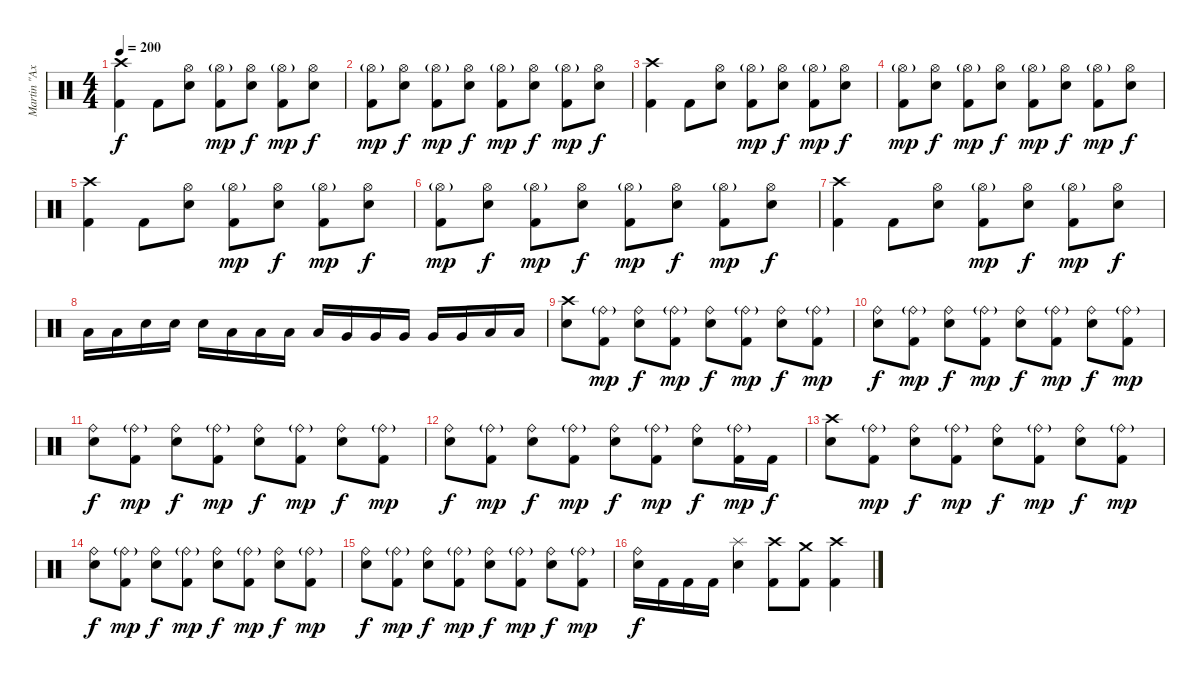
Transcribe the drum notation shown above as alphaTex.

\track ("Martin \"Axe\" Axenrot" "Martin \"Ax") {instrument percussion}
\staff {score}
\articulation defaults
\ts (4 4)
\tempo 200
\clef neutral
\ks c
("Crash high (hit)" "Kick (hit) 2").4{dy f} "Kick (hit) 2".8 ("Hi-Hat (open)" "Electric Snare (hit)").8 ("Hi-Hat (open)"{g} "Kick (hit) 2").8{dy mp} ("Hi-Hat (open)" "Electric Snare (hit)").8{dy f} ("Hi-Hat (open)"{g} "Kick (hit) 2").8{dy mp} ("Hi-Hat (open)" "Electric Snare (hit)").8{dy f} |
("Hi-Hat (open)"{g} "Kick (hit) 2").8{dy mp} ("Hi-Hat (open)" "Electric Snare (hit)").8{dy f} ("Hi-Hat (open)"{g} "Kick (hit) 2").8{dy mp} ("Hi-Hat (open)" "Electric Snare (hit)").8{dy f} ("Hi-Hat (open)"{g} "Kick (hit) 2").8{dy mp} ("Hi-Hat (open)" "Electric Snare (hit)").8{dy f} ("Hi-Hat (open)"{g} "Kick (hit) 2").8{dy mp} ("Hi-Hat (open)" "Electric Snare (hit)").8{dy f} |
("Crash high (hit)" "Kick (hit) 2").4 "Kick (hit) 2".8 ("Hi-Hat (open)" "Electric Snare (hit)").8 ("Hi-Hat (open)"{g} "Kick (hit) 2").8{dy mp} ("Hi-Hat (open)" "Electric Snare (hit)").8{dy f} ("Hi-Hat (open)"{g} "Kick (hit) 2").8{dy mp} ("Hi-Hat (open)" "Electric Snare (hit)").8{dy f} |
("Hi-Hat (open)"{g} "Kick (hit) 2").8{dy mp} ("Hi-Hat (open)" "Electric Snare (hit)").8{dy f} ("Hi-Hat (open)"{g} "Kick (hit) 2").8{dy mp} ("Hi-Hat (open)" "Electric Snare (hit)").8{dy f} ("Hi-Hat (open)"{g} "Kick (hit) 2").8{dy mp} ("Hi-Hat (open)" "Electric Snare (hit)").8{dy f} ("Hi-Hat (open)"{g} "Kick (hit) 2").8{dy mp} ("Hi-Hat (open)" "Electric Snare (hit)").8{dy f} |
("Crash high (hit)" "Kick (hit) 2").4 "Kick (hit) 2".8 ("Hi-Hat (open)" "Electric Snare (hit)").8 ("Hi-Hat (open)"{g} "Kick (hit) 2").8{dy mp} ("Hi-Hat (open)" "Electric Snare (hit)").8{dy f} ("Hi-Hat (open)"{g} "Kick (hit) 2").8{dy mp} ("Hi-Hat (open)" "Electric Snare (hit)").8{dy f} |
("Hi-Hat (open)"{g} "Kick (hit) 2").8{dy mp} ("Hi-Hat (open)" "Electric Snare (hit)").8{dy f} ("Hi-Hat (open)"{g} "Kick (hit) 2").8{dy mp} ("Hi-Hat (open)" "Electric Snare (hit)").8{dy f} ("Hi-Hat (open)"{g} "Kick (hit) 2").8{dy mp} ("Hi-Hat (open)" "Electric Snare (hit)").8{dy f} ("Hi-Hat (open)"{g} "Kick (hit) 2").8{dy mp} ("Hi-Hat (open)" "Electric Snare (hit)").8{dy f} |
("Crash high (hit)" "Kick (hit) 2").4 "Kick (hit) 2".8 ("Hi-Hat (open)" "Electric Snare (hit)").8 ("Hi-Hat (open)"{g} "Kick (hit) 2").8{dy mp} ("Hi-Hat (open)" "Electric Snare (hit)").8{dy f} ("Hi-Hat (open)"{g} "Kick (hit) 2").8{dy mp} ("Hi-Hat (open)" "Electric Snare (hit)").8{dy f} |
"Low Tom (hit)".16 "Low Tom (hit)".16 "Electric Snare (hit)".16 "Electric Snare (hit)".16 "Electric Snare (hit)".16 "Low Tom (hit)".16 "Low Tom (hit)".16 "Low Tom (hit)".16 "Low Tom (hit)".16 "Very Low Tom (hit)".16 "Very Low Tom (hit)".16 "Very Low Tom (hit)".16 "Very Low Tom (hit)".16 "Very Low Tom (hit)".16 "Low Floor Tom (hit)".16 "Low Floor Tom (hit)".16 |
("Crash high (hit)" "Electric Snare (hit)").8 ("Ride (bell)"{g} "Kick (hit) 2").8{dy mp} ("Ride (bell)" "Electric Snare (hit)").8{dy f} ("Ride (bell)"{g} "Kick (hit) 2").8{dy mp} ("Ride (bell)" "Electric Snare (hit)").8{dy f} ("Ride (bell)"{g} "Kick (hit) 2").8{dy mp} ("Ride (bell)" "Electric Snare (hit)").8{dy f} ("Ride (bell)"{g} "Kick (hit) 2").8{dy mp} |
("Ride (bell)" "Electric Snare (hit)").8{dy f} ("Ride (bell)"{g} "Kick (hit) 2").8{dy mp} ("Ride (bell)" "Electric Snare (hit)").8{dy f} ("Ride (bell)"{g} "Kick (hit) 2").8{dy mp} ("Ride (bell)" "Electric Snare (hit)").8{dy f} ("Ride (bell)"{g} "Kick (hit) 2").8{dy mp} ("Ride (bell)" "Electric Snare (hit)").8{dy f} ("Ride (bell)"{g} "Kick (hit) 2").8{dy mp} |
("Ride (bell)" "Electric Snare (hit)").8{dy f} ("Ride (bell)"{g} "Kick (hit) 2").8{dy mp} ("Ride (bell)" "Electric Snare (hit)").8{dy f} ("Ride (bell)"{g} "Kick (hit) 2").8{dy mp} ("Ride (bell)" "Electric Snare (hit)").8{dy f} ("Ride (bell)"{g} "Kick (hit) 2").8{dy mp} ("Ride (bell)" "Electric Snare (hit)").8{dy f} ("Ride (bell)"{g} "Kick (hit) 2").8{dy mp} |
("Ride (bell)" "Electric Snare (hit)").8{dy f} ("Ride (bell)"{g} "Kick (hit) 2").8{dy mp} ("Ride (bell)" "Electric Snare (hit)").8{dy f} ("Ride (bell)"{g} "Kick (hit) 2").8{dy mp} ("Ride (bell)" "Electric Snare (hit)").8{dy f} ("Ride (bell)"{g} "Kick (hit) 2").8{dy mp} ("Ride (bell)" "Electric Snare (hit)").8{dy f} ("Ride (bell)"{g} "Kick (hit) 2").16{dy mp} "Kick (hit) 2".16{dy f} |
("Crash high (hit)" "Electric Snare (hit)").8 ("Ride (bell)"{g} "Kick (hit) 2").8{dy mp} ("Ride (bell)" "Electric Snare (hit)").8{dy f} ("Ride (bell)"{g} "Kick (hit) 2").8{dy mp} ("Ride (bell)" "Electric Snare (hit)").8{dy f} ("Ride (bell)"{g} "Kick (hit) 2").8{dy mp} ("Ride (bell)" "Electric Snare (hit)").8{dy f} ("Ride (bell)"{g} "Kick (hit) 2").8{dy mp} |
("Ride (bell)" "Electric Snare (hit)").8{dy f} ("Ride (bell)"{g} "Kick (hit) 2").8{dy mp} ("Ride (bell)" "Electric Snare (hit)").8{dy f} ("Ride (bell)"{g} "Kick (hit) 2").8{dy mp} ("Ride (bell)" "Electric Snare (hit)").8{dy f} ("Ride (bell)"{g} "Kick (hit) 2").8{dy mp} ("Ride (bell)" "Electric Snare (hit)").8{dy f} ("Ride (bell)"{g} "Kick (hit) 2").8{dy mp} |
("Ride (bell)" "Electric Snare (hit)").8{dy f} ("Ride (bell)"{g} "Kick (hit) 2").8{dy mp} ("Ride (bell)" "Electric Snare (hit)").8{dy f} ("Ride (bell)"{g} "Kick (hit) 2").8{dy mp} ("Ride (bell)" "Electric Snare (hit)").8{dy f} ("Ride (bell)"{g} "Kick (hit) 2").8{dy mp} ("Ride (bell)" "Electric Snare (hit)").8{dy f} ("Ride (bell)"{g} "Kick (hit) 2").8{dy mp} |
("Ride (bell)" "Electric Snare (hit)").16{dy f} "Kick (hit) 2".16 "Kick (hit) 2".16 "Kick (hit) 2".16 ("Splash (hit)" "Electric Snare (hit)").4 ("Crash high (hit)" "Kick (hit) 2").8 ("Crash medium (hit)" "Kick (hit) 2").8 ("Crash high (hit)" "Kick (hit) 2").4
